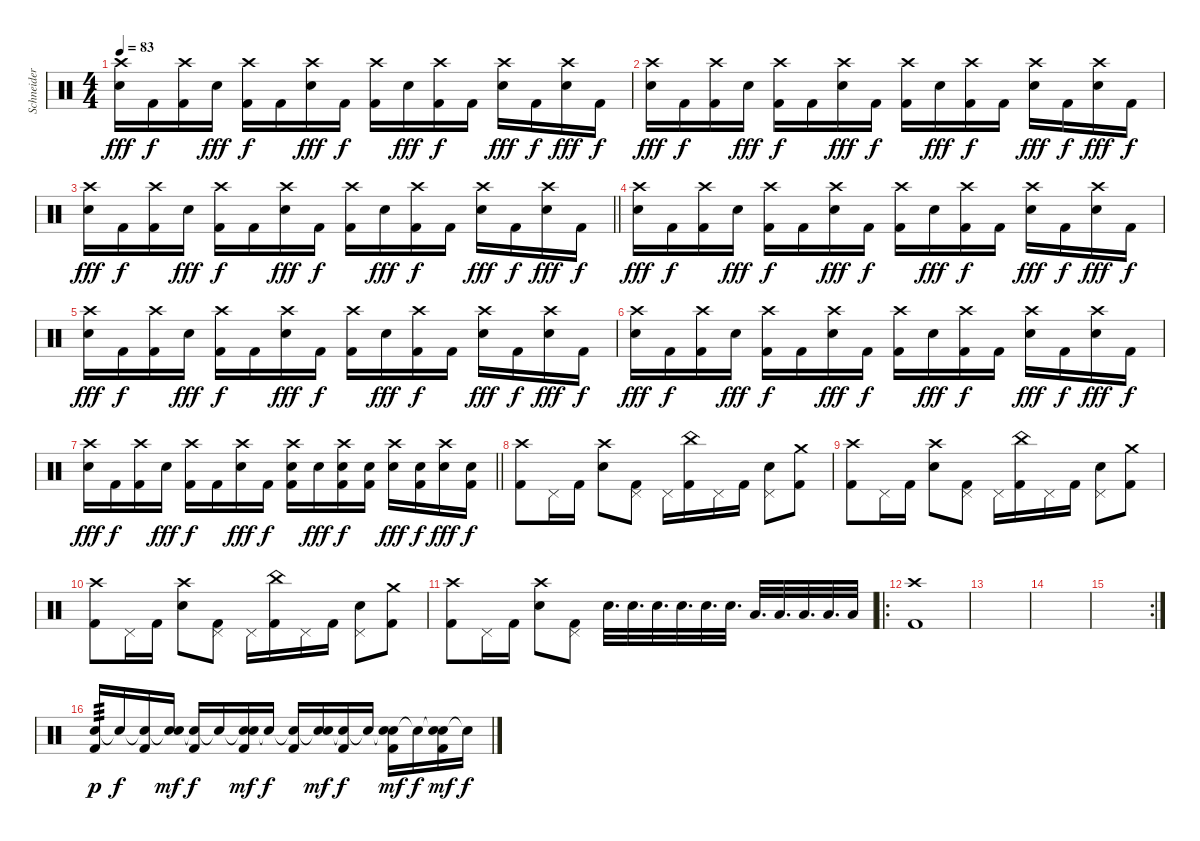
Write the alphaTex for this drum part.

\track ("Schneider" "Schneider") {instrument percussion}
\staff {score}
\articulation defaults
\ts (4 4)
\tempo 83
\clef neutral
\ks c
("Crash high (hit)" "Electric Snare (hit)").16{dy fff} "Kick (hit) 2".16{dy f} ("Crash high (hit)" "Kick (hit) 2").16 "Electric Snare (hit)".16{dy fff} ("Crash high (hit)" "Kick (hit) 2").16{dy f} "Kick (hit) 2".16 ("Crash high (hit)" "Electric Snare (hit)").16{dy fff} "Kick (hit) 2".16{dy f} ("Crash high (hit)" "Kick (hit) 2").16 "Electric Snare (hit)".16{dy fff} ("Crash high (hit)" "Kick (hit) 2").16{dy f} "Kick (hit) 2".16 ("Crash high (hit)" "Electric Snare (hit)").16{dy fff} "Kick (hit) 2".16{dy f} ("Crash high (hit)" "Electric Snare (hit)").16{dy fff} "Kick (hit) 2".16{dy f} |
("Crash high (hit)" "Electric Snare (hit)").16{dy fff} "Kick (hit) 2".16{dy f} ("Crash high (hit)" "Kick (hit) 2").16 "Electric Snare (hit)".16{dy fff} ("Crash high (hit)" "Kick (hit) 2").16{dy f} "Kick (hit) 2".16 ("Crash high (hit)" "Electric Snare (hit)").16{dy fff} "Kick (hit) 2".16{dy f} ("Crash high (hit)" "Kick (hit) 2").16 "Electric Snare (hit)".16{dy fff} ("Crash high (hit)" "Kick (hit) 2").16{dy f} "Kick (hit) 2".16 ("Crash high (hit)" "Electric Snare (hit)").16{dy fff} "Kick (hit) 2".16{dy f} ("Crash high (hit)" "Electric Snare (hit)").16{dy fff} "Kick (hit) 2".16{dy f} |
\barLineRight lightlight
("Crash high (hit)" "Electric Snare (hit)").16{dy fff} "Kick (hit) 2".16{dy f} ("Crash high (hit)" "Kick (hit) 2").16 "Electric Snare (hit)".16{dy fff} ("Crash high (hit)" "Kick (hit) 2").16{dy f} "Kick (hit) 2".16 ("Crash high (hit)" "Electric Snare (hit)").16{dy fff} "Kick (hit) 2".16{dy f} ("Crash high (hit)" "Kick (hit) 2").16 "Electric Snare (hit)".16{dy fff} ("Crash high (hit)" "Kick (hit) 2").16{dy f} "Kick (hit) 2".16 ("Crash high (hit)" "Electric Snare (hit)").16{dy fff} "Kick (hit) 2".16{dy f} ("Crash high (hit)" "Electric Snare (hit)").16{dy fff} "Kick (hit) 2".16{dy f} |
("Crash high (hit)" "Electric Snare (hit)").16{dy fff} "Kick (hit) 2".16{dy f} ("Crash high (hit)" "Kick (hit) 2").16 "Electric Snare (hit)".16{dy fff} ("Crash high (hit)" "Kick (hit) 2").16{dy f} "Kick (hit) 2".16 ("Crash high (hit)" "Electric Snare (hit)").16{dy fff} "Kick (hit) 2".16{dy f} ("Crash high (hit)" "Kick (hit) 2").16 "Electric Snare (hit)".16{dy fff} ("Crash high (hit)" "Kick (hit) 2").16{dy f} "Kick (hit) 2".16 ("Crash high (hit)" "Electric Snare (hit)").16{dy fff} "Kick (hit) 2".16{dy f} ("Crash high (hit)" "Electric Snare (hit)").16{dy fff} "Kick (hit) 2".16{dy f} |
("Crash high (hit)" "Electric Snare (hit)").16{dy fff} "Kick (hit) 2".16{dy f} ("Crash high (hit)" "Kick (hit) 2").16 "Electric Snare (hit)".16{dy fff} ("Crash high (hit)" "Kick (hit) 2").16{dy f} "Kick (hit) 2".16 ("Crash high (hit)" "Electric Snare (hit)").16{dy fff} "Kick (hit) 2".16{dy f} ("Crash high (hit)" "Kick (hit) 2").16 "Electric Snare (hit)".16{dy fff} ("Crash high (hit)" "Kick (hit) 2").16{dy f} "Kick (hit) 2".16 ("Crash high (hit)" "Electric Snare (hit)").16{dy fff} "Kick (hit) 2".16{dy f} ("Crash high (hit)" "Electric Snare (hit)").16{dy fff} "Kick (hit) 2".16{dy f} |
("Crash high (hit)" "Electric Snare (hit)").16{dy fff} "Kick (hit) 2".16{dy f} ("Crash high (hit)" "Kick (hit) 2").16 "Electric Snare (hit)".16{dy fff} ("Crash high (hit)" "Kick (hit) 2").16{dy f} "Kick (hit) 2".16 ("Crash high (hit)" "Electric Snare (hit)").16{dy fff} "Kick (hit) 2".16{dy f} ("Crash high (hit)" "Kick (hit) 2").16 "Electric Snare (hit)".16{dy fff} ("Crash high (hit)" "Kick (hit) 2").16{dy f} "Kick (hit) 2".16 ("Crash high (hit)" "Electric Snare (hit)").16{dy fff} "Kick (hit) 2".16{dy f} ("Crash high (hit)" "Electric Snare (hit)").16{dy fff} "Kick (hit) 2".16{dy f} |
\barLineRight lightlight
("Crash high (hit)" "Electric Snare (hit)").16{dy fff} "Kick (hit) 2".16{dy f} ("Crash high (hit)" "Kick (hit) 2").16 "Electric Snare (hit)".16{dy fff} ("Crash high (hit)" "Kick (hit) 2").16{dy f} "Kick (hit) 2".16 ("Crash high (hit)" "Electric Snare (hit)").16{dy fff} "Kick (hit) 2".16{dy f} ("Crash high (hit)" "Electric Snare (hit)" "Kick (hit) 2").16 "Electric Snare (hit)".16{dy fff} ("Crash high (hit)" "Electric Snare (hit)" "Kick (hit) 2").16{dy f} ("Electric Snare (hit)" "Kick (hit) 2").16 ("Crash high (hit)" "Electric Snare (hit)").16{dy fff} ("Electric Snare (hit)" "Kick (hit) 2").16{dy f} ("Crash high (hit)" "Electric Snare (hit)").16{dy fff} ("Electric Snare (hit)" "Kick (hit) 2").16{dy f} |
("Crash high (hit)" "Kick (hit) 2").8 "Pedal Hi-Hat (hit)".16 "Kick (hit) 2".16 ("Crash high (hit)" "Electric Snare (hit)").8 ("Pedal Hi-Hat (hit)" "Kick (hit) 2").8 "Pedal Hi-Hat (hit)".16 ("China (hit)" "Kick (hit) 2").16 "Pedal Hi-Hat (hit)".16 "Kick (hit) 2".16 ("Pedal Hi-Hat (hit)" "Electric Snare (hit)").8 ("Crash medium (hit)" "Kick (hit) 2").8 |
("Crash high (hit)" "Kick (hit) 2").8 "Pedal Hi-Hat (hit)".16 "Kick (hit) 2".16 ("Crash high (hit)" "Electric Snare (hit)").8 ("Pedal Hi-Hat (hit)" "Kick (hit) 2").8 "Pedal Hi-Hat (hit)".16 ("China (hit)" "Kick (hit) 2").16 "Pedal Hi-Hat (hit)".16 "Kick (hit) 2".16 ("Pedal Hi-Hat (hit)" "Electric Snare (hit)").8 ("Crash medium (hit)" "Kick (hit) 2").8 |
("Crash high (hit)" "Kick (hit) 2").8 "Pedal Hi-Hat (hit)".16 "Kick (hit) 2".16 ("Crash high (hit)" "Electric Snare (hit)").8 ("Pedal Hi-Hat (hit)" "Kick (hit) 2").8 "Pedal Hi-Hat (hit)".16 ("China (hit)" "Kick (hit) 2").16 "Pedal Hi-Hat (hit)".16 "Kick (hit) 2".16 ("Pedal Hi-Hat (hit)" "Electric Snare (hit)").8 ("Crash medium (hit)" "Kick (hit) 2").8 |
("Crash high (hit)" "Kick (hit) 2").8 "Pedal Hi-Hat (hit)".16 "Kick (hit) 2".16 ("Crash high (hit)" "Electric Snare (hit)").8 ("Pedal Hi-Hat (hit)" "Kick (hit) 2").8 "Electric Snare (hit)".32{d} "Electric Snare (hit)".32{d} "Electric Snare (hit)".32{d} "Electric Snare (hit)".32{d} "Electric Snare (hit)".32{d} "Electric Snare (hit)".32{d} "Low Tom (hit)".32{d} "Low Tom (hit)".32{d} "Low Tom (hit)".32{d} "Low Tom (hit)".32{d} "Low Tom (hit)".32 |
\ro
("Crash high (hit)" "Kick (hit) 2").1 |
|
|
\rc 2
|
("Electric Snare (hit)" "Kick (hit) 2").16{tp 3 dy p} "Snare (hit)"{t}.16{dy f} ("Snare (hit)"{t} "Kick (hit) 2").16 ("Snare (hit)"{t} "Electric Snare (hit)").16{dy mf} ("Snare (hit)"{t} "Kick (hit) 2").16{dy f} "Snare (hit)"{t}.16 ("Snare (hit)"{t} "Electric Snare (hit)" "Kick (hit) 2").16{dy mf} "Snare (hit)"{t}.16{dy f} ("Snare (hit)"{t} "Kick (hit) 2").16 ("Snare (hit)"{t} "Electric Snare (hit)").16{dy mf} ("Snare (hit)"{t} "Kick (hit) 2").16{dy f} "Snare (hit)"{t}.16 ("Snare (hit)"{t} "Electric Snare (hit)" "Kick (hit) 2").16{dy mf} "Snare (hit)"{t}.16{dy f} ("Snare (hit)"{t} "Electric Snare (hit)" "Kick (hit) 2").16{dy mf} "Snare (hit)"{t}.16{dy f}
